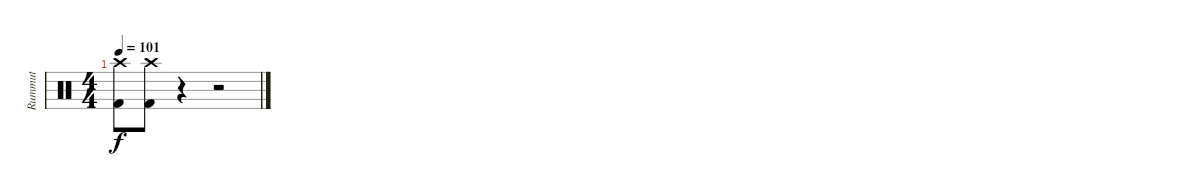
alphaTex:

\track ("Rummut" "Rummut") {instrument percussion}
\staff {score}
\articulation defaults
\ts (4 4)
\tempo 101
\clef neutral
\ks c
("Crash high (hit)" "Kick (hit) 2").8{dy f} ("Crash high (hit)" "Kick (hit) 2").8 r.4 r.2
